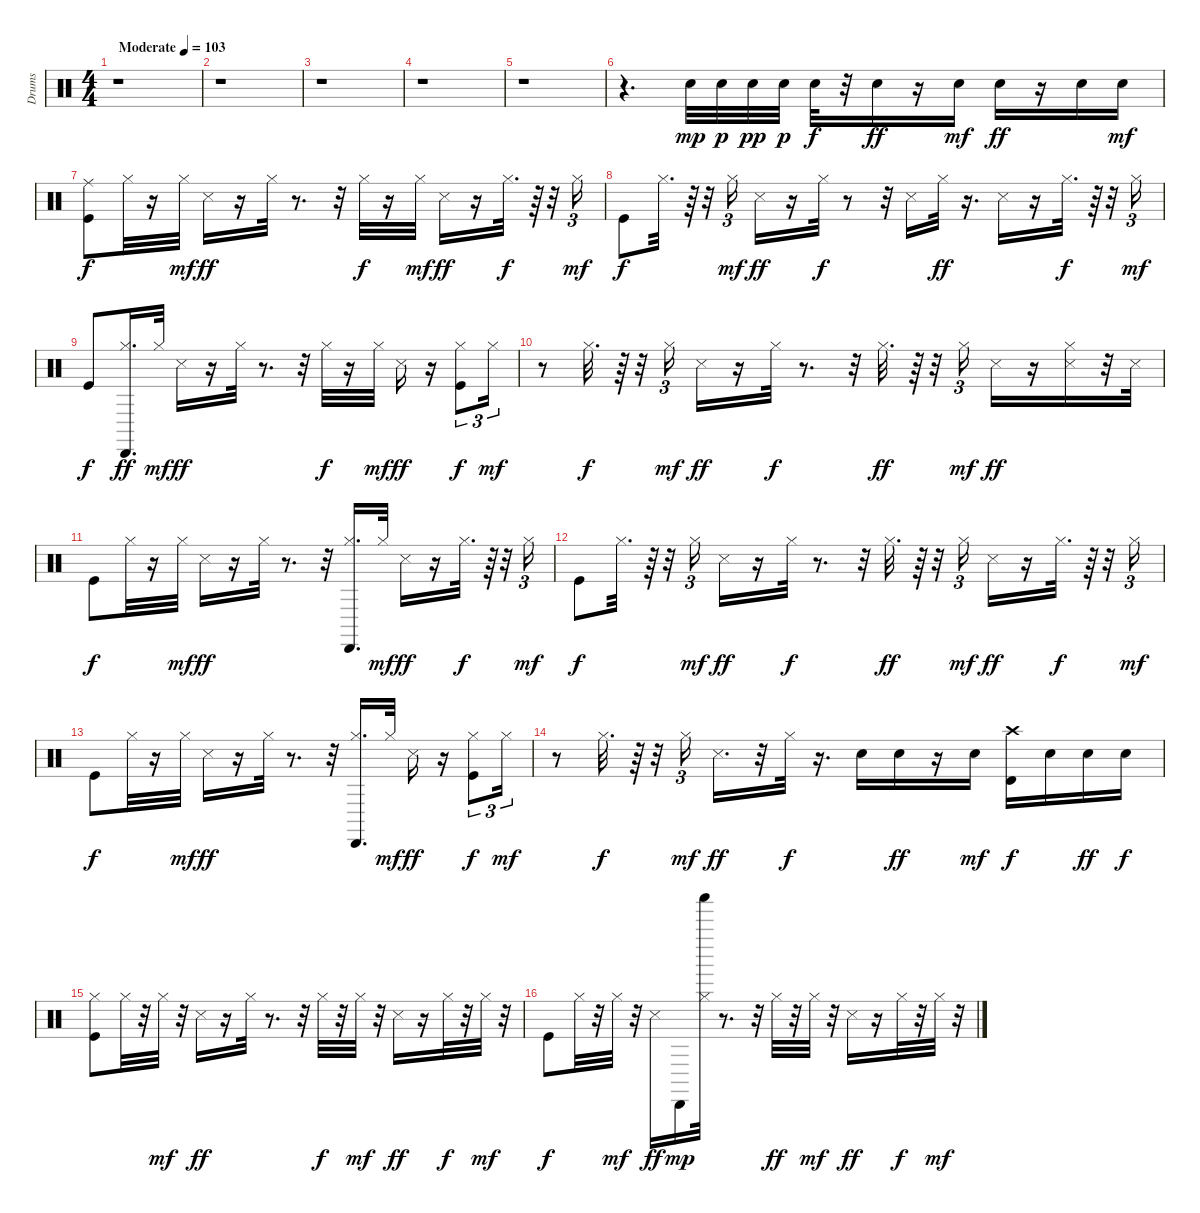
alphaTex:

\track ("Drums" "Drums") {instrument percussion}
\staff {score}
\articulation defaults
\ts (4 4)
\tempo (103 "Moderate")
\clef neutral
\ks c
r.1{dy mp} |
r.1 |
r.1 |
r.1 |
r.1 |
r.4{d} "Electric Snare (hit)".32 "Electric Snare (hit)".32{dy p} "Electric Snare (hit)".32{dy pp} "Electric Snare (hit)".32{dy p} "Electric Snare (hit)".32{dy f} r.32 "Electric Snare (hit)".16{dy ff} r.16 "Electric Snare (hit)".16{dy mf} "Electric Snare (hit)".16{dy ff} r.16 "Electric Snare (hit)".16 "Electric Snare (hit)".16{dy mf} |
("Kick (hit)" "Ride (middle)").8{dy f} "Hi-Hat (closed)".32 r.16 "Hi-Hat (closed)".32{dy mf} "Snare (side stick) 3".16{dy ff} r.16 "Hi-Hat (closed)".32 r.8{d} r.32 "Hi-Hat (closed)".32{dy f} r.16 "Hi-Hat (closed)".32{dy mf} "Snare (side stick) 3".16{dy ff} r.16 "Hi-Hat (closed)".32{d dy f} r.64 r.32 "Hi-Hat (closed)".16{tu (3 2) dy mf} |
"Kick (hit)".8{dy f} "Hi-Hat (closed)".32{d} r.64 r.32 "Hi-Hat (closed)".16{tu (3 2) dy mf} "Snare (side stick) 3".16{dy ff} r.16 "Hi-Hat (closed)".32{dy f} r.8 r.32 "Snare (side stick) 3".16 "Hi-Hat (closed)".32{dy ff} r.16{d} "Snare (side stick) 3".16 r.16 "Hi-Hat (closed)".32{d dy f} r.64 r.32 "Hi-Hat (closed)".16{tu (3 2) dy mf} |
"Kick (hit)".8{dy f} ("Cabasa (hit)" "Hi-Hat (closed)").16{d dy ff} "Hi-Hat (closed)".32{dy mf} "Snare (side stick) 3".16{dy ff} r.16 "Hi-Hat (closed)".32 r.8{d} r.32 "Hi-Hat (closed)".32{dy f} r.16 "Hi-Hat (closed)".32{dy mf} "Snare (side stick) 3".16{dy ff} r.16 ("Kick (hit)" "Hi-Hat (closed)").8{tu (3 2) dy f} "Hi-Hat (closed)".16{tu (3 2) dy mf} |
r.8 "Hi-Hat (closed)".32{d dy f} r.64 r.32 "Hi-Hat (closed)".16{tu (3 2) dy mf} "Snare (side stick) 3".16{dy ff} r.16 "Hi-Hat (closed)".32{dy f} r.8{d} r.32 "Hi-Hat (closed)".32{d dy ff} r.64 r.32 "Hi-Hat (closed)".16{tu (3 2) dy mf} "Snare (side stick) 3".16{dy ff} r.16 ("Snare (side stick) 3" "Hi-Hat (closed)").16 r.32 "Snare (side stick) 3".32 |
"Kick (hit)".8{dy f} "Hi-Hat (closed)".32 r.16 "Hi-Hat (closed)".32{dy mf} "Snare (side stick) 3".16{dy ff} r.16 "Hi-Hat (closed)".32 r.8{d} r.32 ("Cabasa (hit)" "Hi-Hat (closed)").16{d} "Hi-Hat (closed)".32{dy mf} "Snare (side stick) 3".16{dy ff} r.16 "Hi-Hat (closed)".32{d dy f} r.64 r.32 "Hi-Hat (closed)".16{tu (3 2) dy mf} |
"Kick (hit)".8{dy f} "Hi-Hat (closed)".32{d} r.64 r.32 "Hi-Hat (closed)".16{tu (3 2) dy mf} "Snare (side stick) 3".16{dy ff} r.16 "Hi-Hat (closed)".32{dy f} r.8{d} r.32 "Hi-Hat (closed)".32{d dy ff} r.64 r.32 "Hi-Hat (closed)".16{tu (3 2) dy mf} "Snare (side stick) 3".16{dy ff} r.16 "Hi-Hat (closed)".32{d dy f} r.64 r.32 "Hi-Hat (closed)".16{tu (3 2) dy mf} |
"Kick (hit)".8{dy f} "Hi-Hat (closed)".32 r.16 "Hi-Hat (closed)".32{dy mf} "Snare (side stick) 3".16{dy ff} r.16 "Hi-Hat (closed)".32 r.8{d} r.32 ("Cabasa (hit)" "Hi-Hat (closed)").16{d} "Hi-Hat (closed)".32{dy mf} "Snare (side stick) 3".16{dy ff} r.16 ("Kick (hit)" "Hi-Hat (closed)").8{tu (3 2) dy f} "Hi-Hat (closed)".16{tu (3 2) dy mf} |
r.8 "Hi-Hat (closed)".32{d dy f} r.64 r.32 "Hi-Hat (closed)".16{tu (3 2) dy mf} "Snare (side stick) 3".16{d dy ff} r.32 "Hi-Hat (closed)".32{dy f} r.16{d} "Electric Snare (hit)".16 "Electric Snare (hit)".16{dy ff} r.16 "Electric Snare (hit)".16{dy mf} ("Crash high (hit)" "Timbale high (hit)").16{dy f} "Electric Snare (hit)".16 "Electric Snare (hit)".16{dy ff} "Electric Snare (hit)".16{dy f} |
("Kick (hit)" "Hi-Hat (closed)").8 "Hi-Hat (closed)".32 r.32 "Hi-Hat (closed)".32{dy mf} r.32 "Snare (side stick) 3".16{dy ff} r.16 "Hi-Hat (closed)".32 r.8{d} r.32 "Hi-Hat (closed)".32{dy f} r.32 "Hi-Hat (closed)".32{dy mf} r.32 "Snare (side stick) 3".16{dy ff} r.16 "Hi-Hat (closed)".32{dy f} r.32 "Hi-Hat (closed)".32{dy mf} r.32 |
"Kick (hit)".8{dy f} "Hi-Hat (closed)".32 r.32 "Hi-Hat (closed)".32{dy mf} r.32 "Snare (side stick) 3".16{dy ff} "Cabasa (hit)".16{dy mp} ("Shaker (hit)" "Hi-Hat (closed)").32 r.8{d} r.32 "Hi-Hat (closed)".32{dy ff} r.32 "Hi-Hat (closed)".32{dy mf} r.32 "Snare (side stick) 3".16{dy ff} r.16 "Hi-Hat (closed)".32{dy f} r.32 "Hi-Hat (closed)".32{dy mf} r.32
